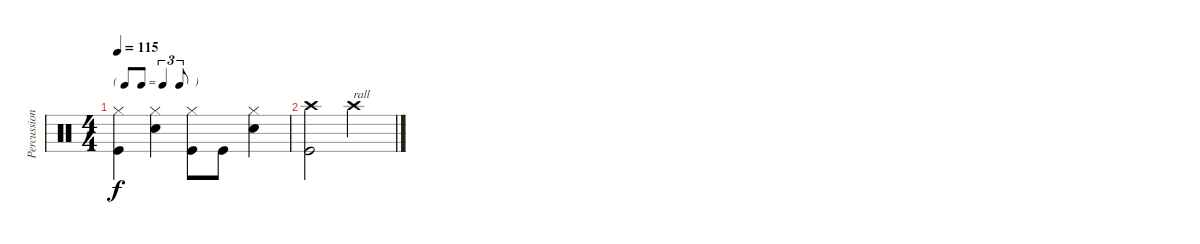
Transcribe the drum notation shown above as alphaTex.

\track ("Percussion" "Percussion") {instrument percussion}
\staff {score}
\articulation defaults
\ts (4 4)
\tf triplet8th
\tempo 115
\clef neutral
\ks c
("Hi-Hat (closed)" "Kick (hit)").4{dy f} ("Hi-Hat (closed)" "Snare (hit) 2").4 ("Hi-Hat (closed)" "Kick (hit)").8 "Kick (hit)".8 ("Hi-Hat (closed)" "Snare (hit) 2").4 |
("Crash high (hit)" "Kick (hit)").2 "Crash high (hit)".2{txt "rall"}
